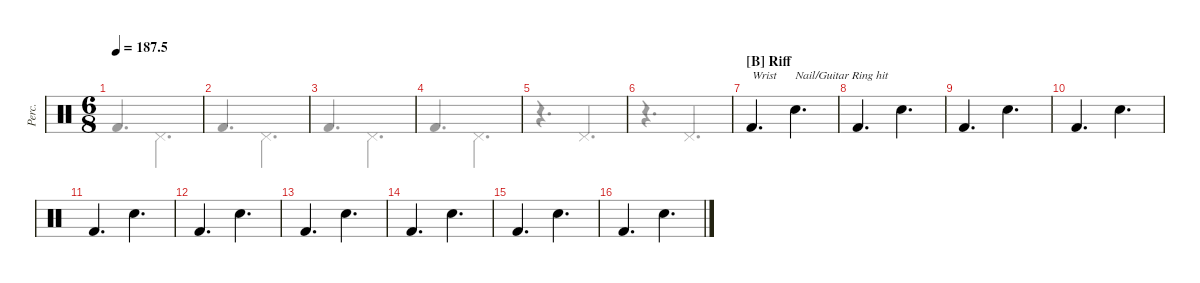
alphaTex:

\defaultSystemsLayout 4
\hideDynamics
\bracketExtendMode groupsimilarinstruments
\otherSystemsTrackNameOrientation horizontal
\track ("Percussions" "Perc.") {instrument percussion}
\staff {score}
\articulation defaults
\voice
\ts (6 8)
\tempo
187.5
\accidentals auto
\clef neutral
\ottava regular
\simile none
\ks c
|
|
|
|
|
|
\section ("B" "Riff")
"Kick (hit) 2".4{d txt "Wrist" beam Up} "Snare (hit) 2".4{d txt "Nail/Guitar Ring hit" beam Down} |
"Kick (hit) 2".4{d beam Up} "Snare (hit) 2".4{d beam Down} |
"Kick (hit) 2".4{d beam Up} "Snare (hit) 2".4{d beam Down} |
"Kick (hit) 2".4{d beam Up} "Snare (hit) 2".4{d beam Down} |
"Kick (hit) 2".4{d beam Up} "Snare (hit) 2".4{d beam Down} |
"Kick (hit) 2".4{d beam Up} "Snare (hit) 2".4{d beam Down} |
"Kick (hit) 2".4{d beam Up} "Snare (hit) 2".4{d beam Down} |
"Kick (hit) 2".4{d beam Up} "Snare (hit) 2".4{d beam Down} |
"Kick (hit) 2".4{d beam Up} "Snare (hit) 2".4{d beam Down} |
"Kick (hit) 2".4{d beam Up} "Snare (hit) 2".4{d beam Down}
\voice
\clef neutral
\ottava regular
\simile none
\ks c "Kick (hit) 2".4{d dy mf beam Up} "Pedal Hi-Hat (hit)".4{d beam Down}
|
"Kick (hit) 2".4{d beam Up} "Pedal Hi-Hat (hit)".4{d beam Down} |
"Kick (hit) 2".4{d beam Up} "Pedal Hi-Hat (hit)".4{d beam Down} |
"Kick (hit) 2".4{d beam Up} "Pedal Hi-Hat (hit)".4{d beam Down} |
r.4{d beam Down} "Pedal Hi-Hat (hit)".4{d beam Up} |
r.4{d beam Down} "Pedal Hi-Hat (hit)".4{d beam Up} |
|
|
|
|
|
|
|
|
|
